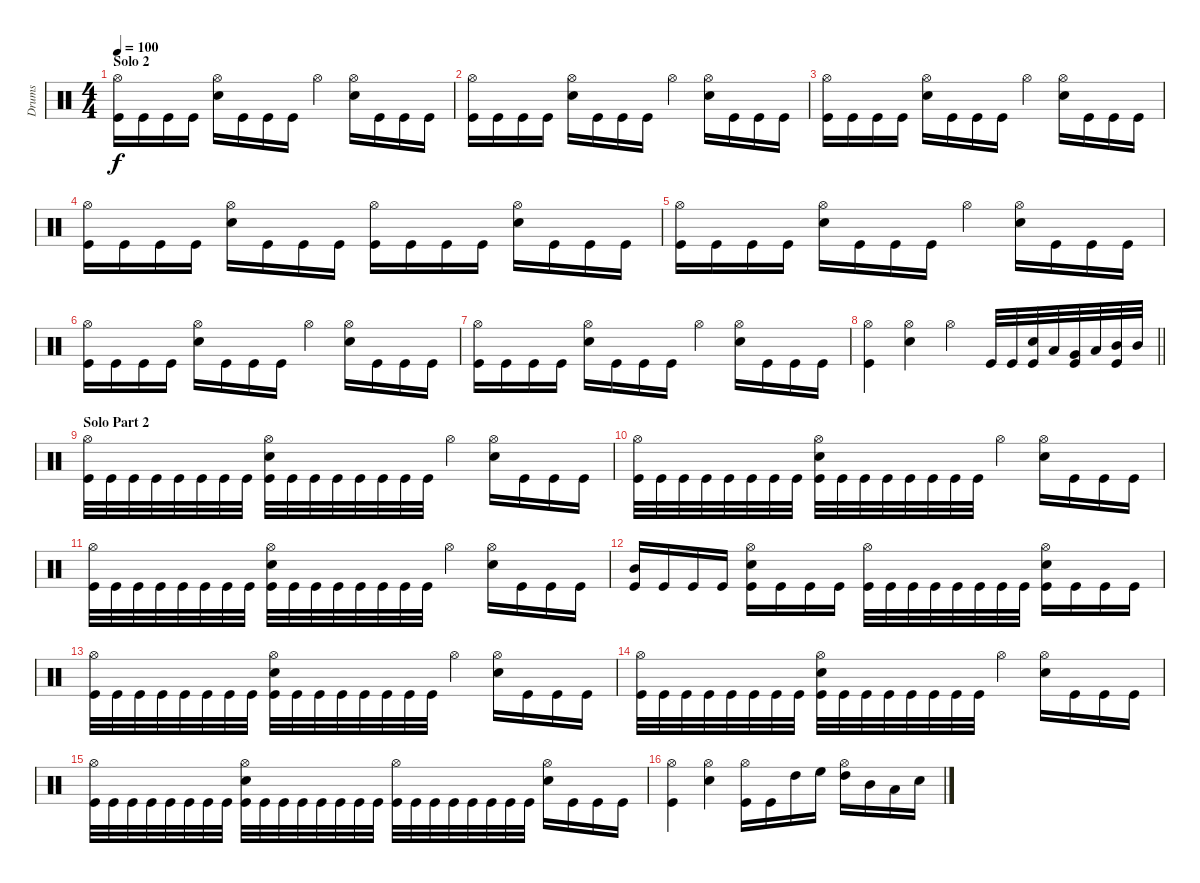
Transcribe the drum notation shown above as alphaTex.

\track ("Drums" "Drums") {instrument percussion}
\staff {score}
\articulation defaults
\ts (4 4)
\section ("" "Solo 2")
\tempo 100
\clef neutral
\ks c
("Hi-Hat (open)" "Kick (hit)").16{dy f} "Kick (hit)".16 "Kick (hit)".16 "Kick (hit)".16 ("Hi-Hat (open)" "Electric Snare (hit)").16 "Kick (hit)".16 "Kick (hit)".16 "Kick (hit)".16 "Hi-Hat (open)".4 ("Hi-Hat (open)" "Electric Snare (hit)").16 "Kick (hit)".16 "Kick (hit)".16 "Kick (hit)".16 |
("Hi-Hat (open)" "Kick (hit)").16 "Kick (hit)".16 "Kick (hit)".16 "Kick (hit)".16 ("Hi-Hat (open)" "Electric Snare (hit)").16 "Kick (hit)".16 "Kick (hit)".16 "Kick (hit)".16 "Hi-Hat (open)".4 ("Hi-Hat (open)" "Electric Snare (hit)").16 "Kick (hit)".16 "Kick (hit)".16 "Kick (hit)".16 |
("Hi-Hat (open)" "Kick (hit)").16 "Kick (hit)".16 "Kick (hit)".16 "Kick (hit)".16 ("Hi-Hat (open)" "Electric Snare (hit)").16 "Kick (hit)".16 "Kick (hit)".16 "Kick (hit)".16 "Hi-Hat (open)".4 ("Hi-Hat (open)" "Electric Snare (hit)").16 "Kick (hit)".16 "Kick (hit)".16 "Kick (hit)".16 |
("Hi-Hat (open)" "Kick (hit)").16 "Kick (hit)".16 "Kick (hit)".16 "Kick (hit)".16 ("Hi-Hat (open)" "Electric Snare (hit)").16 "Kick (hit)".16 "Kick (hit)".16 "Kick (hit)".16 ("Hi-Hat (open)" "Kick (hit)").16 "Kick (hit)".16 "Kick (hit)".16 "Kick (hit)".16 ("Hi-Hat (open)" "Electric Snare (hit)").16 "Kick (hit)".16 "Kick (hit)".16 "Kick (hit)".16 |
("Hi-Hat (open)" "Kick (hit)").16 "Kick (hit)".16 "Kick (hit)".16 "Kick (hit)".16 ("Hi-Hat (open)" "Electric Snare (hit)").16 "Kick (hit)".16 "Kick (hit)".16 "Kick (hit)".16 "Hi-Hat (open)".4 ("Hi-Hat (open)" "Electric Snare (hit)").16 "Kick (hit)".16 "Kick (hit)".16 "Kick (hit)".16 |
("Hi-Hat (open)" "Kick (hit)").16 "Kick (hit)".16 "Kick (hit)".16 "Kick (hit)".16 ("Hi-Hat (open)" "Electric Snare (hit)").16 "Kick (hit)".16 "Kick (hit)".16 "Kick (hit)".16 "Hi-Hat (open)".4 ("Hi-Hat (open)" "Electric Snare (hit)").16 "Kick (hit)".16 "Kick (hit)".16 "Kick (hit)".16 |
("Hi-Hat (open)" "Kick (hit)").16 "Kick (hit)".16 "Kick (hit)".16 "Kick (hit)".16 ("Hi-Hat (open)" "Electric Snare (hit)").16 "Kick (hit)".16 "Kick (hit)".16 "Kick (hit)".16 "Hi-Hat (open)".4 ("Hi-Hat (open)" "Electric Snare (hit)").16 "Kick (hit)".16 "Kick (hit)".16 "Kick (hit)".16 |
\barLineRight lightlight
("Hi-Hat (open)" "Kick (hit)").4 ("Hi-Hat (open)" "Electric Snare (hit)").4 "Hi-Hat (open)".4 "Kick (hit)".32 "Kick (hit)".32 ("Electric Snare (hit)" "Kick (hit)").32 "Low Tom (hit)".32 ("Very Low Tom (hit)" "Kick (hit)").32 "Low Tom (hit)".32 ("Mid Tom (hit)" "Kick (hit)").32 "Mid Tom (hit)".32 |
\section ("" "Solo Part 2")
("Hi-Hat (open)" "Kick (hit)").32 "Kick (hit)".32 "Kick (hit)".32 "Kick (hit)".32 "Kick (hit)".32 "Kick (hit)".32 "Kick (hit)".32 "Kick (hit)".32 ("Hi-Hat (open)" "Electric Snare (hit)" "Kick (hit)").32 "Kick (hit)".32 "Kick (hit)".32 "Kick (hit)".32 "Kick (hit)".32 "Kick (hit)".32 "Kick (hit)".32 "Kick (hit)".32 "Hi-Hat (open)".4 ("Hi-Hat (open)" "Electric Snare (hit)").16 "Kick (hit)".16 "Kick (hit)".16 "Kick (hit)".16 |
("Hi-Hat (open)" "Kick (hit)").32 "Kick (hit)".32 "Kick (hit)".32 "Kick (hit)".32 "Kick (hit)".32 "Kick (hit)".32 "Kick (hit)".32 "Kick (hit)".32 ("Hi-Hat (open)" "Electric Snare (hit)" "Kick (hit)").32 "Kick (hit)".32 "Kick (hit)".32 "Kick (hit)".32 "Kick (hit)".32 "Kick (hit)".32 "Kick (hit)".32 "Kick (hit)".32 "Hi-Hat (open)".4 ("Hi-Hat (open)" "Electric Snare (hit)").16 "Kick (hit)".16 "Kick (hit)".16 "Kick (hit)".16 |
("Hi-Hat (open)" "Kick (hit)").32 "Kick (hit)".32 "Kick (hit)".32 "Kick (hit)".32 "Kick (hit)".32 "Kick (hit)".32 "Kick (hit)".32 "Kick (hit)".32 ("Hi-Hat (open)" "Electric Snare (hit)" "Kick (hit)").32 "Kick (hit)".32 "Kick (hit)".32 "Kick (hit)".32 "Kick (hit)".32 "Kick (hit)".32 "Kick (hit)".32 "Kick (hit)".32 "Hi-Hat (open)".4 ("Hi-Hat (open)" "Electric Snare (hit)").16 "Kick (hit)".16 "Kick (hit)".16 "Kick (hit)".16 |
("Mid Tom (hit)" "Kick (hit)").16 "Kick (hit)".16 "Kick (hit)".16 "Kick (hit)".16 ("Hi-Hat (open)" "Electric Snare (hit)" "Kick (hit)").16 "Kick (hit)".16 "Kick (hit)".16 "Kick (hit)".16 ("Hi-Hat (open)" "Kick (hit)").32 "Kick (hit)".32 "Kick (hit)".32 "Kick (hit)".32 "Kick (hit)".32 "Kick (hit)".32 "Kick (hit)".32 "Kick (hit)".32 ("Hi-Hat (open)" "Electric Snare (hit)" "Kick (hit)").16 "Kick (hit)".16 "Kick (hit)".16 "Kick (hit)".16 |
("Hi-Hat (open)" "Kick (hit)").32 "Kick (hit)".32 "Kick (hit)".32 "Kick (hit)".32 "Kick (hit)".32 "Kick (hit)".32 "Kick (hit)".32 "Kick (hit)".32 ("Hi-Hat (open)" "Electric Snare (hit)" "Kick (hit)").32 "Kick (hit)".32 "Kick (hit)".32 "Kick (hit)".32 "Kick (hit)".32 "Kick (hit)".32 "Kick (hit)".32 "Kick (hit)".32 "Hi-Hat (open)".4 ("Hi-Hat (open)" "Electric Snare (hit)").16 "Kick (hit)".16 "Kick (hit)".16 "Kick (hit)".16 |
("Hi-Hat (open)" "Kick (hit)").32 "Kick (hit)".32 "Kick (hit)".32 "Kick (hit)".32 "Kick (hit)".32 "Kick (hit)".32 "Kick (hit)".32 "Kick (hit)".32 ("Hi-Hat (open)" "Electric Snare (hit)" "Kick (hit)").32 "Kick (hit)".32 "Kick (hit)".32 "Kick (hit)".32 "Kick (hit)".32 "Kick (hit)".32 "Kick (hit)".32 "Kick (hit)".32 "Hi-Hat (open)".4 ("Hi-Hat (open)" "Electric Snare (hit)").16 "Kick (hit)".16 "Kick (hit)".16 "Kick (hit)".16 |
("Hi-Hat (open)" "Kick (hit)").32 "Kick (hit)".32 "Kick (hit)".32 "Kick (hit)".32 "Kick (hit)".32 "Kick (hit)".32 "Kick (hit)".32 "Kick (hit)".32 ("Hi-Hat (open)" "Electric Snare (hit)" "Kick (hit)").32 "Kick (hit)".32 "Kick (hit)".32 "Kick (hit)".32 "Kick (hit)".32 "Kick (hit)".32 "Kick (hit)".32 "Kick (hit)".32 ("Hi-Hat (open)" "Kick (hit)").32 "Kick (hit)".32 "Kick (hit)".32 "Kick (hit)".32 "Kick (hit)".32 "Kick (hit)".32 "Kick (hit)".32 "Kick (hit)".32 ("Hi-Hat (open)" "Electric Snare (hit)").16 "Kick (hit)".16 "Kick (hit)".16 "Kick (hit)".16 |
("Hi-Hat (open)" "Kick (hit)").4 ("Hi-Hat (open)" "Electric Snare (hit)").4 ("Hi-Hat (open)" "Kick (hit)").16 "Kick (hit)".16 "High Tom (hit)".16 "High Floor Tom (hit)".16 ("Hi-Hat (open)" "High Tom (hit)").16 "Mid Tom (hit)".16 "Low Tom (hit)".16 "Electric Snare (hit)".16
